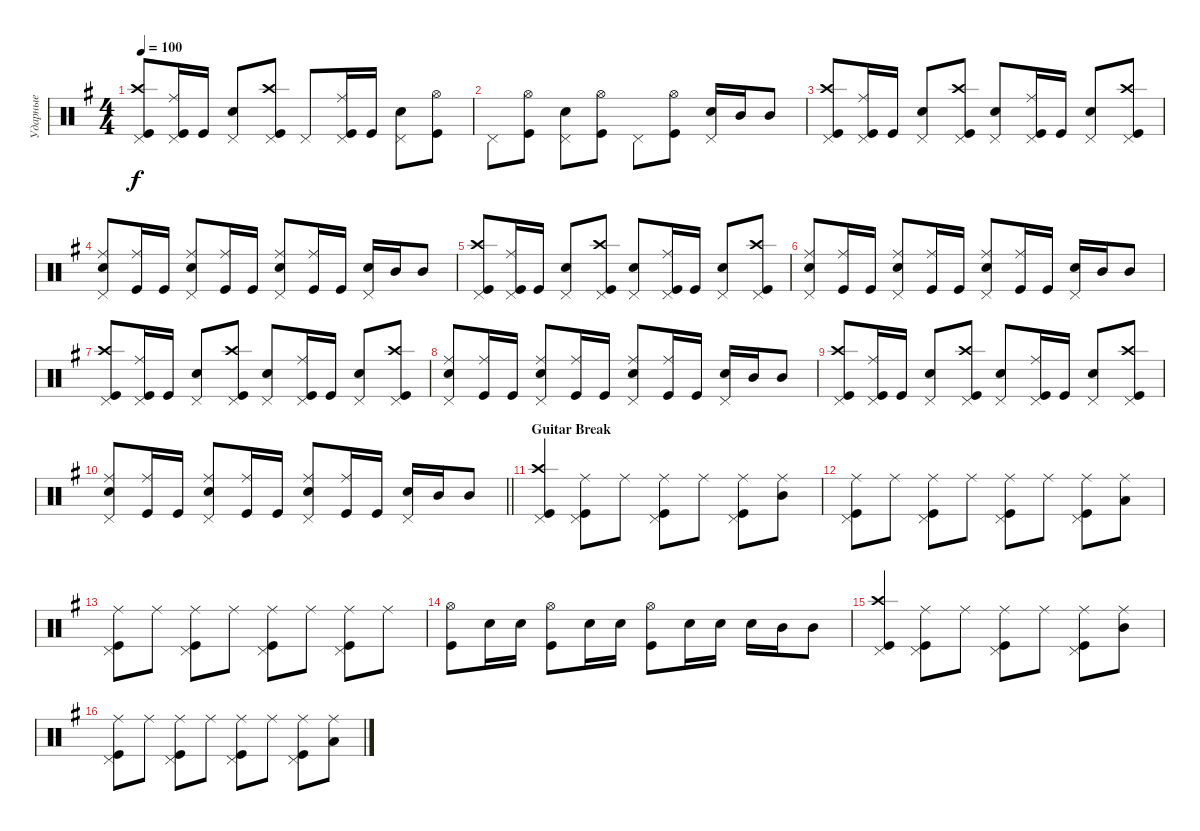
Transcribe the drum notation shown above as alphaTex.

\track ("Ударные" "Ударные") {instrument percussion}
\staff {score}
\articulation defaults
\ts (4 4)
\tempo 100
\clef neutral
\ks eminor
("Kick (hit)" "Crash high (hit)" "Pedal Hi-Hat (hit)").8{dy f} ("Kick (hit)" "Pedal Hi-Hat (hit)" "Ride (middle)").16 "Kick (hit)".16 ("Snare (hit) 2" "Pedal Hi-Hat (hit)").8 ("Kick (hit)" "Crash high (hit)" "Pedal Hi-Hat (hit)").8 "Pedal Hi-Hat (hit)".8 ("Kick (hit)" "Ride (middle)" "Pedal Hi-Hat (hit)").16 "Kick (hit)".16 ("Snare (hit) 2" "Pedal Hi-Hat (hit)").8 ("Kick (hit)" "Hi-Hat (open)").8 |
"Pedal Hi-Hat (hit)".8 ("Kick (hit)" "Hi-Hat (open)").8 ("Snare (hit) 2" "Pedal Hi-Hat (hit)").8 ("Kick (hit)" "Hi-Hat (open)").8 "Pedal Hi-Hat (hit)".8 ("Hi-Hat (open)" "Kick (hit)").8 ("Pedal Hi-Hat (hit)" "Snare (hit) 2").16 "Mid Tom (hit)".16 "Mid Tom (hit)".8 |
("Kick (hit)" "Crash high (hit)" "Pedal Hi-Hat (hit)").8 ("Kick (hit)" "Pedal Hi-Hat (hit)" "Ride (middle)").16 "Kick (hit)".16 ("Snare (hit) 2" "Pedal Hi-Hat (hit)").8 ("Kick (hit)" "Crash high (hit)" "Pedal Hi-Hat (hit)").8 ("Pedal Hi-Hat (hit)" "Snare (hit) 2").8 ("Kick (hit)" "Ride (middle)" "Pedal Hi-Hat (hit)").16 "Kick (hit)".16 ("Snare (hit) 2" "Pedal Hi-Hat (hit)").8 ("Kick (hit)" "Crash high (hit)" "Pedal Hi-Hat (hit)").8 |
("Pedal Hi-Hat (hit)" "Snare (hit) 2" "Ride (middle)").8 ("Kick (hit)" "Ride (middle)").16 "Kick (hit)".16 ("Snare (hit) 2" "Pedal Hi-Hat (hit)" "Ride (middle)").8 ("Kick (hit)" "Ride (middle)").16 "Kick (hit)".16 ("Pedal Hi-Hat (hit)" "Ride (middle)" "Snare (hit) 2").8 ("Kick (hit)" "Ride (middle)").16 "Kick (hit)".16 ("Pedal Hi-Hat (hit)" "Snare (hit) 2").16 "Mid Tom (hit)".16 "Mid Tom (hit)".8 |
("Kick (hit)" "Crash high (hit)" "Pedal Hi-Hat (hit)").8 ("Kick (hit)" "Pedal Hi-Hat (hit)" "Ride (middle)").16 "Kick (hit)".16 ("Snare (hit) 2" "Pedal Hi-Hat (hit)").8 ("Kick (hit)" "Crash high (hit)" "Pedal Hi-Hat (hit)").8 ("Pedal Hi-Hat (hit)" "Snare (hit) 2").8 ("Kick (hit)" "Ride (middle)" "Pedal Hi-Hat (hit)").16 "Kick (hit)".16 ("Snare (hit) 2" "Pedal Hi-Hat (hit)").8 ("Kick (hit)" "Crash high (hit)" "Pedal Hi-Hat (hit)").8 |
("Pedal Hi-Hat (hit)" "Snare (hit) 2" "Ride (middle)").8 ("Kick (hit)" "Ride (middle)").16 "Kick (hit)".16 ("Snare (hit) 2" "Pedal Hi-Hat (hit)" "Ride (middle)").8 ("Kick (hit)" "Ride (middle)").16 "Kick (hit)".16 ("Pedal Hi-Hat (hit)" "Ride (middle)" "Snare (hit) 2").8 ("Kick (hit)" "Ride (middle)").16 "Kick (hit)".16 ("Pedal Hi-Hat (hit)" "Snare (hit) 2").16 "Mid Tom (hit)".16 "Mid Tom (hit)".8 |
("Kick (hit)" "Crash high (hit)" "Pedal Hi-Hat (hit)").8 ("Kick (hit)" "Pedal Hi-Hat (hit)" "Ride (middle)").16 "Kick (hit)".16 ("Snare (hit) 2" "Pedal Hi-Hat (hit)").8 ("Kick (hit)" "Crash high (hit)" "Pedal Hi-Hat (hit)").8 ("Pedal Hi-Hat (hit)" "Snare (hit) 2").8 ("Kick (hit)" "Ride (middle)" "Pedal Hi-Hat (hit)").16 "Kick (hit)".16 ("Snare (hit) 2" "Pedal Hi-Hat (hit)").8 ("Kick (hit)" "Crash high (hit)" "Pedal Hi-Hat (hit)").8 |
("Pedal Hi-Hat (hit)" "Snare (hit) 2" "Ride (middle)").8 ("Kick (hit)" "Ride (middle)").16 "Kick (hit)".16 ("Snare (hit) 2" "Pedal Hi-Hat (hit)" "Ride (middle)").8 ("Kick (hit)" "Ride (middle)").16 "Kick (hit)".16 ("Pedal Hi-Hat (hit)" "Ride (middle)" "Snare (hit) 2").8 ("Kick (hit)" "Ride (middle)").16 "Kick (hit)".16 ("Pedal Hi-Hat (hit)" "Snare (hit) 2").16 "Mid Tom (hit)".16 "Mid Tom (hit)".8 |
("Kick (hit)" "Crash high (hit)" "Pedal Hi-Hat (hit)").8 ("Kick (hit)" "Pedal Hi-Hat (hit)" "Ride (middle)").16 "Kick (hit)".16 ("Snare (hit) 2" "Pedal Hi-Hat (hit)").8 ("Kick (hit)" "Crash high (hit)" "Pedal Hi-Hat (hit)").8 ("Pedal Hi-Hat (hit)" "Snare (hit) 2").8 ("Kick (hit)" "Ride (middle)" "Pedal Hi-Hat (hit)").16 "Kick (hit)".16 ("Snare (hit) 2" "Pedal Hi-Hat (hit)").8 ("Kick (hit)" "Crash high (hit)" "Pedal Hi-Hat (hit)").8 |
\barLineRight lightlight
("Pedal Hi-Hat (hit)" "Snare (hit) 2" "Ride (middle)").8 ("Kick (hit)" "Ride (middle)").16 "Kick (hit)".16 ("Snare (hit) 2" "Pedal Hi-Hat (hit)" "Ride (middle)").8 ("Kick (hit)" "Ride (middle)").16 "Kick (hit)".16 ("Pedal Hi-Hat (hit)" "Ride (middle)" "Snare (hit) 2").8 ("Kick (hit)" "Ride (middle)").16 "Kick (hit)".16 ("Pedal Hi-Hat (hit)" "Snare (hit) 2").16 "Mid Tom (hit)".16 "Mid Tom (hit)".8 |
\section ("" "Guitar Break")
("Kick (hit)" "Crash high (hit)" "Pedal Hi-Hat (hit)").4 ("Ride (middle)" "Pedal Hi-Hat (hit)" "Kick (hit)").8 "Ride (middle)".8 ("Ride (middle)" "Pedal Hi-Hat (hit)" "Kick (hit)").8 "Ride (middle)".8 ("Ride (middle)" "Pedal Hi-Hat (hit)" "Kick (hit)").8 ("Ride (middle)" "Mid Tom (hit)").8 |
("Kick (hit)" "Ride (middle)" "Pedal Hi-Hat (hit)").8 "Ride (middle)".8 ("Ride (middle)" "Pedal Hi-Hat (hit)" "Kick (hit)").8 "Ride (middle)".8 ("Ride (middle)" "Pedal Hi-Hat (hit)" "Kick (hit)").8 "Ride (middle)".8 ("Ride (middle)" "Pedal Hi-Hat (hit)" "Kick (hit)").8 ("Ride (middle)" "Low Tom (hit)").8 |
("Kick (hit)" "Ride (middle)" "Pedal Hi-Hat (hit)").8 "Ride (middle)".8 ("Ride (middle)" "Pedal Hi-Hat (hit)" "Kick (hit)").8 "Ride (middle)".8 ("Ride (middle)" "Pedal Hi-Hat (hit)" "Kick (hit)").8 "Ride (middle)".8 ("Ride (middle)" "Pedal Hi-Hat (hit)" "Kick (hit)").8 "Ride (middle)".8 |
("Kick (hit)" "Hi-Hat (open)").8 "Snare (hit) 2".16 "Snare (hit) 2".16 ("Kick (hit)" "Hi-Hat (open)").8 "Snare (hit) 2".16 "Snare (hit) 2".16 ("Kick (hit)" "Hi-Hat (open)").8 "Snare (hit) 2".16 "Snare (hit) 2".16 "Snare (hit) 2".16 "Mid Tom (hit)".16 "Mid Tom (hit)".8 |
("Kick (hit)" "Crash high (hit)" "Pedal Hi-Hat (hit)").4 ("Ride (middle)" "Pedal Hi-Hat (hit)" "Kick (hit)").8 "Ride (middle)".8 ("Ride (middle)" "Pedal Hi-Hat (hit)" "Kick (hit)").8 "Ride (middle)".8 ("Ride (middle)" "Pedal Hi-Hat (hit)" "Kick (hit)").8 ("Ride (middle)" "Mid Tom (hit)").8 |
("Kick (hit)" "Ride (middle)" "Pedal Hi-Hat (hit)").8 "Ride (middle)".8 ("Ride (middle)" "Pedal Hi-Hat (hit)" "Kick (hit)").8 "Ride (middle)".8 ("Ride (middle)" "Pedal Hi-Hat (hit)" "Kick (hit)").8 "Ride (middle)".8 ("Ride (middle)" "Pedal Hi-Hat (hit)" "Kick (hit)").8 ("Ride (middle)" "Low Tom (hit)").8
